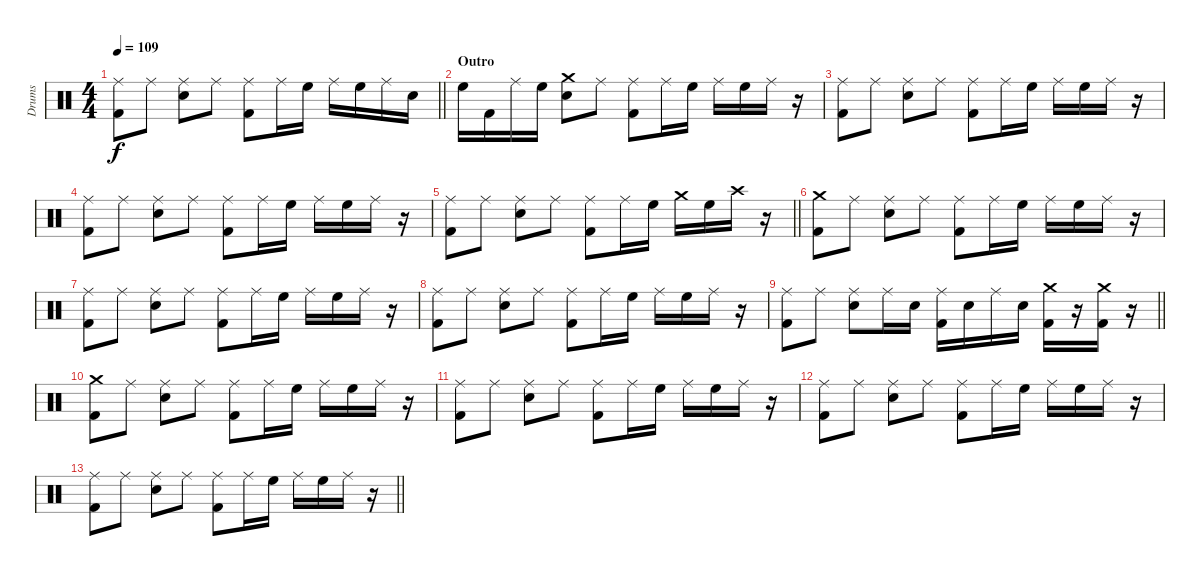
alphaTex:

\track ("Drums" "Drums") {instrument percussion}
\staff {score}
\articulation defaults
\ts (4 4)
\tempo 109
\clef neutral
\barLineRight lightlight
\ks c
("Ride (middle)" "Kick (hit) 2").8{dy f} "Ride (middle)".8 ("Ride (middle)" "Electric Snare (hit)").8 "Ride (middle)".8 ("Ride (middle)" "Kick (hit) 2").8 "Ride (middle)".16 "High Floor Tom (hit)".16 "Ride (middle)".16 "High Floor Tom (hit)".16 "Ride (middle)".16 "Electric Snare (hit)".16 |
\section ("" "Outro")
"High Floor Tom (hit)".16 "Kick (hit) 2".16 "Ride (middle)".16 "High Floor Tom (hit)".16 ("Crash medium (hit)" "Electric Snare (hit)").8 "Ride (middle)".8 ("Ride (middle)" "Kick (hit) 2").8 "Ride (middle)".16 "High Floor Tom (hit)".16 "Ride (middle)".16 "High Floor Tom (hit)".16 "Ride (middle)".16 r.16 |
("Ride (middle)" "Kick (hit) 2").8 "Ride (middle)".8 ("Ride (middle)" "Electric Snare (hit)").8 "Ride (middle)".8 ("Ride (middle)" "Kick (hit) 2").8 "Ride (middle)".16 "High Floor Tom (hit)".16 "Ride (middle)".16 "High Floor Tom (hit)".16 "Ride (middle)".16 r.16 |
("Ride (middle)" "Kick (hit) 2").8 "Ride (middle)".8 ("Ride (middle)" "Electric Snare (hit)").8 "Ride (middle)".8 ("Ride (middle)" "Kick (hit) 2").8 "Ride (middle)".16 "High Floor Tom (hit)".16 "Ride (middle)".16 "High Floor Tom (hit)".16 "Ride (middle)".16 r.16 |
\barLineRight lightlight
("Ride (middle)" "Kick (hit) 2").8 "Ride (middle)".8 ("Ride (middle)" "Electric Snare (hit)").8 "Ride (middle)".8 ("Ride (middle)" "Kick (hit) 2").8 "Ride (middle)".16 "High Floor Tom (hit)".16 "Crash medium (hit)".16 "High Floor Tom (hit)".16 "Crash high (hit)".16 r.16 |
("Crash medium (hit)" "Kick (hit) 2").8 "Ride (middle)".8 ("Ride (middle)" "Electric Snare (hit)").8 "Ride (middle)".8 ("Ride (middle)" "Kick (hit) 2").8 "Ride (middle)".16 "High Floor Tom (hit)".16 "Ride (middle)".16 "High Floor Tom (hit)".16 "Ride (middle)".16 r.16 |
("Ride (middle)" "Kick (hit) 2").8 "Ride (middle)".8 ("Ride (middle)" "Electric Snare (hit)").8 "Ride (middle)".8 ("Ride (middle)" "Kick (hit) 2").8 "Ride (middle)".16 "High Floor Tom (hit)".16 "Ride (middle)".16 "High Floor Tom (hit)".16 "Ride (middle)".16 r.16 |
("Ride (middle)" "Kick (hit) 2").8 "Ride (middle)".8 ("Ride (middle)" "Electric Snare (hit)").8 "Ride (middle)".8 ("Ride (middle)" "Kick (hit) 2").8 "Ride (middle)".16 "High Floor Tom (hit)".16 "Ride (middle)".16 "High Floor Tom (hit)".16 "Ride (middle)".16 r.16 |
\barLineRight lightlight
("Ride (middle)" "Kick (hit) 2").8 "Ride (middle)".8 ("Ride (middle)" "Electric Snare (hit)").8 "Ride (middle)".16 "Electric Snare (hit)".16 ("Ride (middle)" "Kick (hit) 2").16 "Electric Snare (hit)".16 "Ride (middle)".16 "Electric Snare (hit)".16 ("Crash medium (hit)" "Kick (hit) 2").16 r.16 ("Crash medium (hit)" "Kick (hit) 2").16 r.16 |
("Crash medium (hit)" "Kick (hit) 2").8 "Ride (middle)".8 ("Ride (middle)" "Electric Snare (hit)").8 "Ride (middle)".8 ("Ride (middle)" "Kick (hit) 2").8 "Ride (middle)".16 "High Floor Tom (hit)".16 "Ride (middle)".16 "High Floor Tom (hit)".16 "Ride (middle)".16 r.16 |
("Ride (middle)" "Kick (hit) 2").8 "Ride (middle)".8 ("Ride (middle)" "Electric Snare (hit)").8 "Ride (middle)".8 ("Ride (middle)" "Kick (hit) 2").8 "Ride (middle)".16 "High Floor Tom (hit)".16 "Ride (middle)".16 "High Floor Tom (hit)".16 "Ride (middle)".16 r.16 |
("Ride (middle)" "Kick (hit) 2").8 "Ride (middle)".8 ("Ride (middle)" "Electric Snare (hit)").8 "Ride (middle)".8 ("Ride (middle)" "Kick (hit) 2").8 "Ride (middle)".16 "High Floor Tom (hit)".16 "Ride (middle)".16 "High Floor Tom (hit)".16 "Ride (middle)".16 r.16 |
\barLineRight lightlight
("Ride (middle)" "Kick (hit) 2").8 "Ride (middle)".8 ("Ride (middle)" "Electric Snare (hit)").8 "Ride (middle)".8 ("Ride (middle)" "Kick (hit) 2").8 "Ride (middle)".16 "High Floor Tom (hit)".16 "Ride (middle)".16 "High Floor Tom (hit)".16 "Ride (middle)".16 r.16
